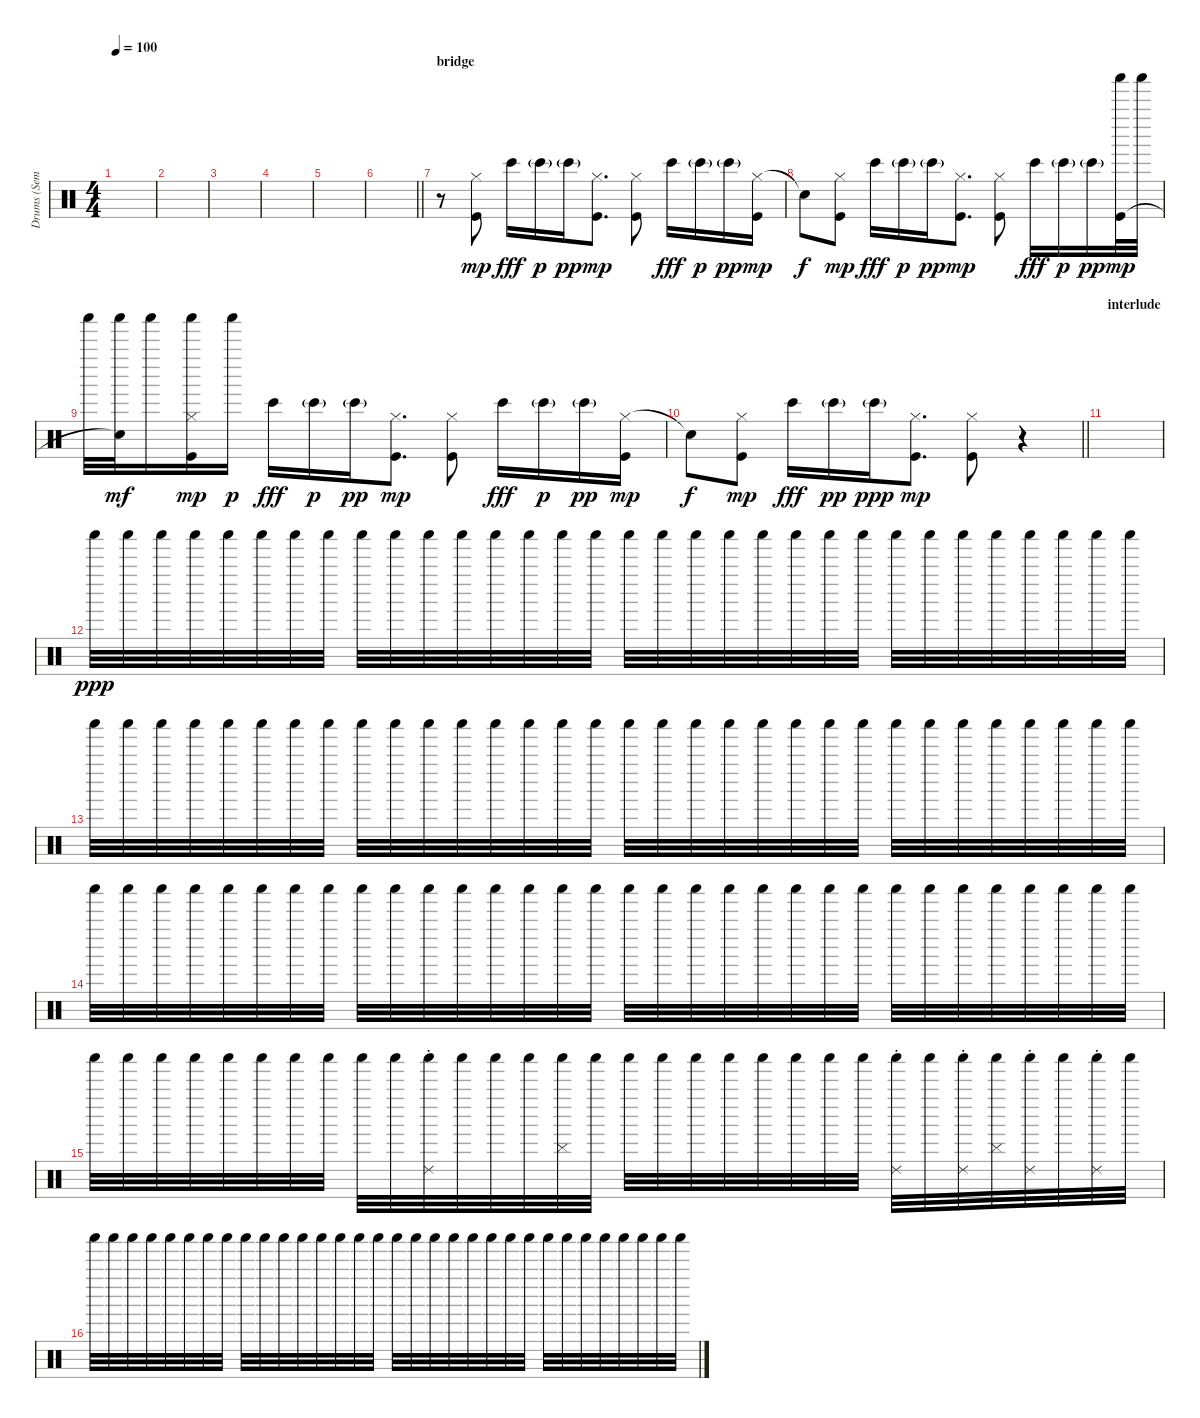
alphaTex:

\track ("Drums (Semple)" "Drums (Sem") {instrument percussion}
\staff {score}
\articulation defaults
\ts (4 4)
\tempo 100
\clef neutral
\ks c
|
|
|
|
|
\barLineRight lightlight
|
\section ("" "bridge")
r.8 ("Hi-Hat (closed)" "Kick (hit)").8{dy mp} "Bongo High (hit)".16{dy fff} "Bongo High (hit)"{g}.16{dy p} "Bongo High (hit)"{g}.16{dy pp} ("Hi-Hat (closed)" "Kick (hit)").8{d dy mp} ("Hi-Hat (closed)" "Kick (hit)").8 "Bongo High (hit)".16{dy fff} "Bongo High (hit)"{g}.16{dy p} "Bongo High (hit)"{g}.16{dy pp} ("Hi-Hat (closed)" "Kick (hit)").16{dy mp} |
"Snare (hit)"{t}.8{dy f} ("Hi-Hat (closed)" "Kick (hit)").8{dy mp} "Bongo High (hit)".16{dy fff} "Bongo High (hit)"{g}.16{dy p} "Bongo High (hit)"{g}.16{dy pp} ("Hi-Hat (closed)" "Kick (hit)").8{d dy mp} ("Hi-Hat (closed)" "Kick (hit)").8 "Bongo High (hit)".16{dy fff} "Bongo High (hit)"{g}.16{dy p} "Bongo High (hit)"{g}.16{dy pp} ("Shaker (hit)" "Kick (hit)").32{dy mp} "Shaker (hit)".32 |
"Shaker (hit)".32 ("Shaker (hit)" "Snare (hit)"{t}).32{dy mf} "Shaker (hit)".16 ("Shaker (hit)" "Hi-Hat (closed)" "Kick (hit)").16{dy mp} "Shaker (hit)".16{dy p} "Bongo High (hit)".16{dy fff} "Bongo High (hit)"{g}.16{dy p} "Bongo High (hit)"{g}.16{dy pp} ("Hi-Hat (closed)" "Kick (hit)").8{d dy mp} ("Hi-Hat (closed)" "Kick (hit)").8 "Bongo High (hit)".16{dy fff} "Bongo High (hit)"{g}.16{dy p} "Bongo High (hit)"{g}.16{dy pp} ("Hi-Hat (closed)" "Kick (hit)").16{dy mp} |
\barLineRight lightlight "Snare (hit)"{t}.8{dy f}
("Hi-Hat (closed)" "Kick (hit)").8{dy mp} "Bongo High (hit)".16{dy fff} "Bongo High (hit)"{g}.16{dy pp} "Bongo High (hit)"{g}.16{dy ppp} ("Hi-Hat (closed)" "Kick (hit)").8{d dy mp} ("Hi-Hat (closed)" "Kick (hit)").8 r.4 |
\section ("" "interlude")
|
"Shaker (hit)".32{dy ppp} "Shaker (hit)".32 "Shaker (hit)".32 "Shaker (hit)".32 "Shaker (hit)".32 "Shaker (hit)".32 "Shaker (hit)".32 "Shaker (hit)".32 "Shaker (hit)".32 "Shaker (hit)".32 "Shaker (hit)".32 "Shaker (hit)".32 "Shaker (hit)".32 "Shaker (hit)".32 "Shaker (hit)".32 "Shaker (hit)".32 "Shaker (hit)".32 "Shaker (hit)".32 "Shaker (hit)".32 "Shaker (hit)".32 "Shaker (hit)".32 "Shaker (hit)".32 "Shaker (hit)".32 "Shaker (hit)".32 "Shaker (hit)".32 "Shaker (hit)".32 "Shaker (hit)".32 "Shaker (hit)".32 "Shaker (hit)".32 "Shaker (hit)".32 "Shaker (hit)".32 "Shaker (hit)".32 |
"Shaker (hit)".32 "Shaker (hit)".32 "Shaker (hit)".32 "Shaker (hit)".32 "Shaker (hit)".32 "Shaker (hit)".32 "Shaker (hit)".32 "Shaker (hit)".32 "Shaker (hit)".32 "Shaker (hit)".32 "Shaker (hit)".32 "Shaker (hit)".32 "Shaker (hit)".32 "Shaker (hit)".32 "Shaker (hit)".32 "Shaker (hit)".32 "Shaker (hit)".32 "Shaker (hit)".32 "Shaker (hit)".32 "Shaker (hit)".32 "Shaker (hit)".32 "Shaker (hit)".32 "Shaker (hit)".32 "Shaker (hit)".32 "Shaker (hit)".32 "Shaker (hit)".32 "Shaker (hit)".32 "Shaker (hit)".32 "Shaker (hit)".32 "Shaker (hit)".32 "Shaker (hit)".32 "Shaker (hit)".32 |
"Shaker (hit)".32 "Shaker (hit)".32 "Shaker (hit)".32 "Shaker (hit)".32 "Shaker (hit)".32 "Shaker (hit)".32 "Shaker (hit)".32 "Shaker (hit)".32 "Shaker (hit)".32 "Shaker (hit)".32 "Shaker (hit)".32 "Shaker (hit)".32 "Shaker (hit)".32 "Shaker (hit)".32 "Shaker (hit)".32 "Shaker (hit)".32 "Shaker (hit)".32 "Shaker (hit)".32 "Shaker (hit)".32 "Shaker (hit)".32 "Shaker (hit)".32 "Shaker (hit)".32 "Shaker (hit)".32 "Shaker (hit)".32 "Shaker (hit)".32 "Shaker (hit)".32 "Shaker (hit)".32 "Shaker (hit)".32 "Shaker (hit)".32 "Shaker (hit)".32 "Shaker (hit)".32 "Shaker (hit)".32 |
"Shaker (hit)".32 "Shaker (hit)".32 "Shaker (hit)".32 "Shaker (hit)".32 "Shaker (hit)".32 "Shaker (hit)".32 "Shaker (hit)".32 "Shaker (hit)".32 "Shaker (hit)".32 "Shaker (hit)".32 ("Ride (choke) 2" "Shaker (hit)").32 "Shaker (hit)".32 "Shaker (hit)".32 "Shaker (hit)".32 ("Cymbal (hit)" "Shaker (hit)").32 "Shaker (hit)".32 "Shaker (hit)".32 "Shaker (hit)".32 "Shaker (hit)".32 "Shaker (hit)".32 "Shaker (hit)".32 "Shaker (hit)".32 "Shaker (hit)".32 "Shaker (hit)".32 ("Ride (choke) 2" "Shaker (hit)").32 "Shaker (hit)".32 ("Ride (choke) 2" "Shaker (hit)").32 ("Cymbal (hit)" "Shaker (hit)").32 ("Ride (choke) 2" "Shaker (hit)").32 "Shaker (hit)".32 ("Ride (choke) 2" "Shaker (hit)").32 "Shaker (hit)".32 |
"Shaker (hit)".32 "Shaker (hit)".32 "Shaker (hit)".32 "Shaker (hit)".32 "Shaker (hit)".32 "Shaker (hit)".32 "Shaker (hit)".32 "Shaker (hit)".32 "Shaker (hit)".32 "Shaker (hit)".32 "Shaker (hit)".32 "Shaker (hit)".32 "Shaker (hit)".32 "Shaker (hit)".32 "Shaker (hit)".32 "Shaker (hit)".32 "Shaker (hit)".32 "Shaker (hit)".32 "Shaker (hit)".32 "Shaker (hit)".32 "Shaker (hit)".32 "Shaker (hit)".32 "Shaker (hit)".32 "Shaker (hit)".32 "Shaker (hit)".32 "Shaker (hit)".32 "Shaker (hit)".32 "Shaker (hit)".32 "Shaker (hit)".32 "Shaker (hit)".32 "Shaker (hit)".32 "Shaker (hit)".32
